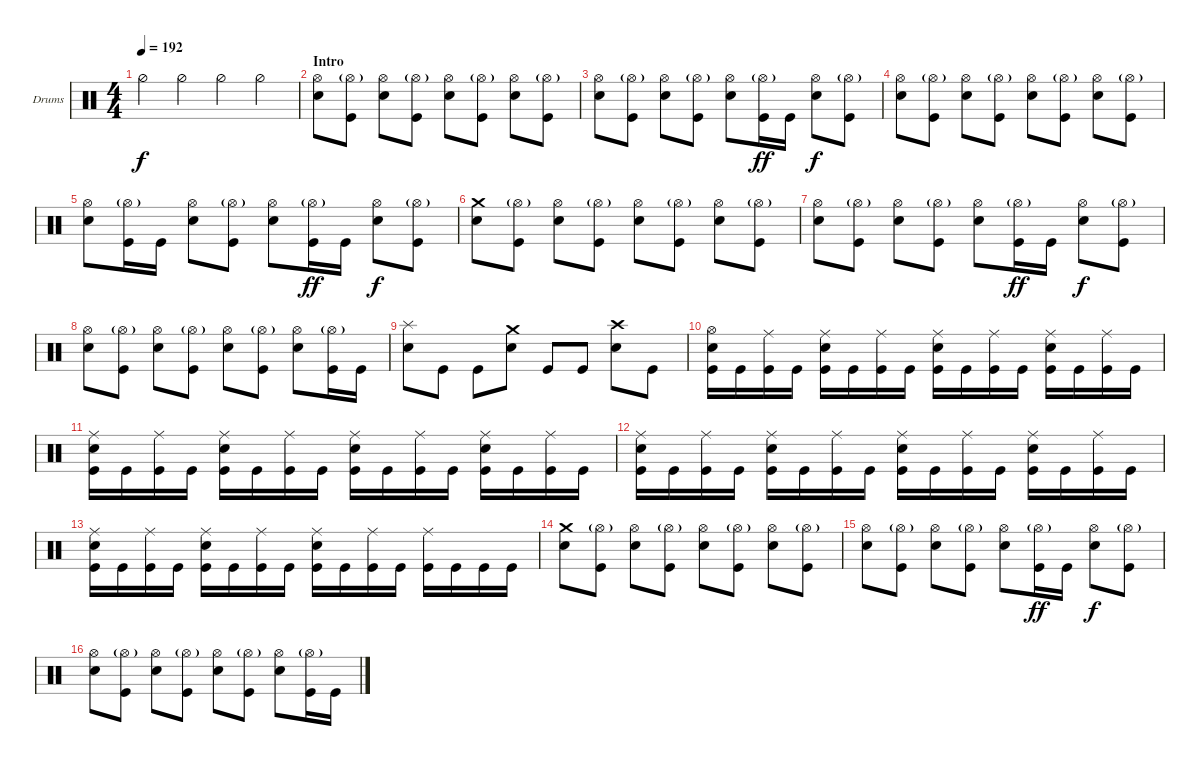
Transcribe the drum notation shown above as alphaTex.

\bracketExtendMode groupsimilarinstruments
\firstSystemTrackNameOrientation horizontal
\otherSystemsTrackNameOrientation horizontal
\track ("Corey Friedlander" "Drums") {instrument percussion}
\staff {score}
\articulation defaults
\ts (4 4)
\tempo 192
\clef neutral
\ks aminor "Hi-Hat (half)".4{dy f} "Hi-Hat (half)".4 "Hi-Hat (half)".4 "Hi-Hat (half)".4
|
\section ("" "Intro")
("Snare (hit) 2" "Hi-Hat (open)").8 ("Kick (hit)" "Hi-Hat (open)"{g}).8 ("Snare (hit) 2" "Hi-Hat (open)").8 ("Kick (hit)" "Hi-Hat (open)"{g}).8 ("Snare (hit) 2" "Hi-Hat (open)").8 ("Kick (hit)" "Hi-Hat (open)"{g}).8 ("Snare (hit) 2" "Hi-Hat (open)").8 ("Kick (hit)" "Hi-Hat (open)"{g}).8 |
("Snare (hit) 2" "Hi-Hat (open)").8 ("Kick (hit)" "Hi-Hat (open)"{g}).8 ("Snare (hit) 2" "Hi-Hat (open)").8 ("Kick (hit)" "Hi-Hat (open)"{g}).8 ("Snare (hit) 2" "Hi-Hat (open)").8 ("Kick (hit)" "Hi-Hat (open)"{g}).16{dy ff} "Kick (hit)".16 ("Snare (hit) 2" "Hi-Hat (open)").8{dy f} ("Kick (hit)" "Hi-Hat (open)"{g}).8 |
("Snare (hit) 2" "Hi-Hat (open)").8 ("Kick (hit)" "Hi-Hat (open)"{g}).8 ("Snare (hit) 2" "Hi-Hat (open)").8 ("Kick (hit)" "Hi-Hat (open)"{g}).8 ("Snare (hit) 2" "Hi-Hat (open)").8 ("Kick (hit)" "Hi-Hat (open)"{g}).8 ("Snare (hit) 2" "Hi-Hat (open)").8 ("Kick (hit)" "Hi-Hat (open)"{g}).8 |
("Snare (hit) 2" "Hi-Hat (open)").8 ("Kick (hit)" "Hi-Hat (open)"{g}).16 "Kick (hit)".16 ("Snare (hit) 2" "Hi-Hat (open)").8 ("Kick (hit)" "Hi-Hat (open)"{g}).8 ("Snare (hit) 2" "Hi-Hat (open)").8 ("Kick (hit)" "Hi-Hat (open)"{g}).16{dy ff} "Kick (hit)".16 ("Snare (hit) 2" "Hi-Hat (open)").8{dy f} ("Kick (hit)" "Hi-Hat (open)"{g}).8 |
("Snare (hit) 2" "Crash medium (hit)").8 ("Kick (hit)" "Hi-Hat (open)"{g}).8 ("Snare (hit) 2" "Hi-Hat (open)").8 ("Kick (hit)" "Hi-Hat (open)"{g}).8 ("Snare (hit) 2" "Hi-Hat (open)").8 ("Kick (hit)" "Hi-Hat (open)"{g}).8 ("Snare (hit) 2" "Hi-Hat (open)").8 ("Kick (hit)" "Hi-Hat (open)"{g}).8 |
("Snare (hit) 2" "Hi-Hat (open)").8 ("Kick (hit)" "Hi-Hat (open)"{g}).8 ("Snare (hit) 2" "Hi-Hat (open)").8 ("Kick (hit)" "Hi-Hat (open)"{g}).8 ("Snare (hit) 2" "Hi-Hat (open)").8 ("Kick (hit)" "Hi-Hat (open)"{g}).16{dy ff} "Kick (hit)".16 ("Snare (hit) 2" "Hi-Hat (open)").8{dy f} ("Kick (hit)" "Hi-Hat (open)"{g}).8 |
("Snare (hit) 2" "Hi-Hat (open)").8 ("Kick (hit)" "Hi-Hat (open)"{g}).8 ("Snare (hit) 2" "Hi-Hat (open)").8 ("Kick (hit)" "Hi-Hat (open)"{g}).8 ("Snare (hit) 2" "Hi-Hat (open)").8 ("Kick (hit)" "Hi-Hat (open)"{g}).8 ("Snare (hit) 2" "Hi-Hat (open)").8 ("Kick (hit)" "Hi-Hat (open)"{g}).16 "Kick (hit)".16 |
("Snare (hit) 2" "Splash (hit)").8 "Kick (hit)".8 "Kick (hit)".8 ("Snare (hit) 2" "Crash medium (hit)").8 "Kick (hit)".8 "Kick (hit)".8 ("Snare (hit) 2" "Crash high (hit)").8 "Kick (hit)".8 |
("Snare (hit) 2" "Kick (hit)" "Hi-Hat (open)").16 "Kick (hit)".16 ("Kick (hit)" "Ride (middle)").16 "Kick (hit)".16 ("Kick (hit)" "Snare (hit) 2" "Ride (middle)").16 "Kick (hit)".16 ("Kick (hit)" "Ride (middle)").16 "Kick (hit)".16 ("Kick (hit)" "Snare (hit) 2" "Ride (middle)").16 "Kick (hit)".16 ("Kick (hit)" "Ride (middle)").16 "Kick (hit)".16 ("Kick (hit)" "Snare (hit) 2" "Ride (middle)").16 "Kick (hit)".16 ("Kick (hit)" "Ride (middle)").16 "Kick (hit)".16 |
("Snare (hit) 2" "Kick (hit)" "Ride (middle)").16 "Kick (hit)".16 ("Kick (hit)" "Ride (middle)").16 "Kick (hit)".16 ("Kick (hit)" "Snare (hit) 2" "Ride (middle)").16 "Kick (hit)".16 ("Kick (hit)" "Ride (middle)").16 "Kick (hit)".16 ("Kick (hit)" "Snare (hit) 2" "Ride (middle)").16 "Kick (hit)".16 ("Kick (hit)" "Ride (middle)").16 "Kick (hit)".16 ("Kick (hit)" "Snare (hit) 2" "Ride (middle)").16 "Kick (hit)".16 ("Kick (hit)" "Ride (middle)").16 "Kick (hit)".16 |
("Snare (hit) 2" "Kick (hit)" "Ride (middle)").16 "Kick (hit)".16 ("Kick (hit)" "Ride (middle)").16 "Kick (hit)".16 ("Kick (hit)" "Snare (hit) 2" "Ride (middle)").16 "Kick (hit)".16 ("Kick (hit)" "Ride (middle)").16 "Kick (hit)".16 ("Kick (hit)" "Snare (hit) 2" "Ride (middle)").16 "Kick (hit)".16 ("Kick (hit)" "Ride (middle)").16 "Kick (hit)".16 ("Kick (hit)" "Snare (hit) 2" "Ride (middle)").16 "Kick (hit)".16 ("Kick (hit)" "Ride (middle)").16 "Kick (hit)".16 |
("Snare (hit) 2" "Kick (hit)" "Ride (middle)").16 "Kick (hit)".16 ("Kick (hit)" "Ride (middle)").16 "Kick (hit)".16 ("Kick (hit)" "Snare (hit) 2" "Ride (middle)").16 "Kick (hit)".16 ("Kick (hit)" "Ride (middle)").16 "Kick (hit)".16 ("Kick (hit)" "Snare (hit) 2" "Ride (middle)").16 "Kick (hit)".16 ("Kick (hit)" "Ride (middle)").16 "Kick (hit)".16 ("Kick (hit)" "Ride (middle)").16 "Kick (hit)".16 "Kick (hit)".16 "Kick (hit)".16 |
("Snare (hit) 2" "Crash medium (hit)").8 ("Kick (hit)" "Hi-Hat (open)"{g}).8 ("Snare (hit) 2" "Hi-Hat (open)").8 ("Kick (hit)" "Hi-Hat (open)"{g}).8 ("Snare (hit) 2" "Hi-Hat (open)").8 ("Kick (hit)" "Hi-Hat (open)"{g}).8 ("Snare (hit) 2" "Hi-Hat (open)").8 ("Kick (hit)" "Hi-Hat (open)"{g}).8 |
("Snare (hit) 2" "Hi-Hat (open)").8 ("Kick (hit)" "Hi-Hat (open)"{g}).8 ("Snare (hit) 2" "Hi-Hat (open)").8 ("Kick (hit)" "Hi-Hat (open)"{g}).8 ("Snare (hit) 2" "Hi-Hat (open)").8 ("Kick (hit)" "Hi-Hat (open)"{g}).16{dy ff} "Kick (hit)".16 ("Snare (hit) 2" "Hi-Hat (open)").8{dy f} ("Kick (hit)" "Hi-Hat (open)"{g}).8 |
("Snare (hit) 2" "Hi-Hat (open)").8 ("Kick (hit)" "Hi-Hat (open)"{g}).8 ("Snare (hit) 2" "Hi-Hat (open)").8 ("Kick (hit)" "Hi-Hat (open)"{g}).8 ("Snare (hit) 2" "Hi-Hat (open)").8 ("Kick (hit)" "Hi-Hat (open)"{g}).8 ("Snare (hit) 2" "Hi-Hat (open)").8 ("Kick (hit)" "Hi-Hat (open)"{g}).16 "Kick (hit)".16
